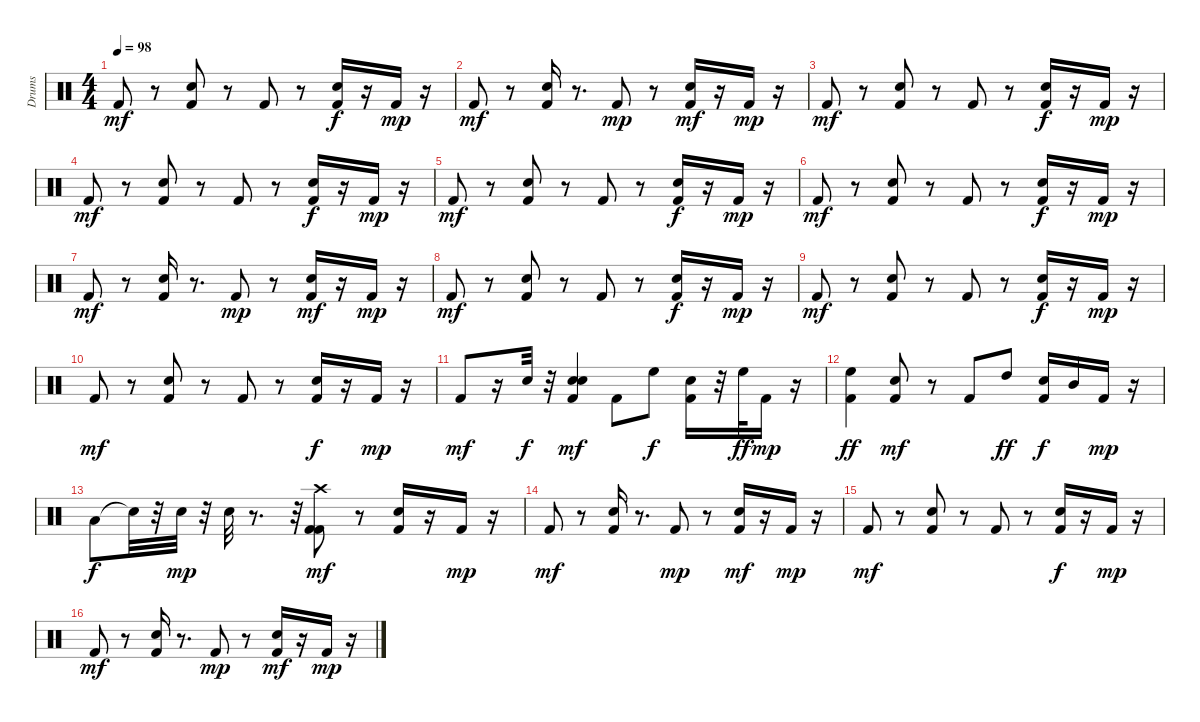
\track ("Drums" "Drums") {instrument percussion}
\staff {score}
\articulation defaults
\ts (4 4)
\tempo 98
\clef neutral
\ks c "Kick (hit) 2".8{dy mf}
r.8 ("Kick (hit) 2" "Snare (hit) 2").8 r.8 "Kick (hit) 2".8 r.8 ("Kick (hit) 2" "Snare (hit) 2").16{dy f} r.16 "Kick (hit) 2".16{dy mp} r.16 |
"Kick (hit) 2".8{dy mf} r.8 ("Kick (hit) 2" "Snare (hit) 2").16 r.8{d} "Kick (hit) 2".8{dy mp} r.8 ("Kick (hit) 2" "Snare (hit) 2").16{dy mf} r.16 "Kick (hit) 2".16{dy mp} r.16 |
"Kick (hit) 2".8{dy mf} r.8 ("Kick (hit) 2" "Snare (hit) 2").8 r.8 "Kick (hit) 2".8 r.8 ("Kick (hit) 2" "Snare (hit) 2").16{dy f} r.16 "Kick (hit) 2".16{dy mp} r.16 |
"Kick (hit) 2".8{dy mf} r.8 ("Kick (hit) 2" "Snare (hit) 2").8 r.8 "Kick (hit) 2".8 r.8 ("Kick (hit) 2" "Snare (hit) 2").16{dy f} r.16 "Kick (hit) 2".16{dy mp} r.16 |
"Kick (hit) 2".8{dy mf} r.8 ("Kick (hit) 2" "Snare (hit) 2").8 r.8 "Kick (hit) 2".8 r.8 ("Kick (hit) 2" "Snare (hit) 2").16{dy f} r.16 "Kick (hit) 2".16{dy mp} r.16 |
"Kick (hit) 2".8{dy mf} r.8 ("Kick (hit) 2" "Snare (hit) 2").8 r.8 "Kick (hit) 2".8 r.8 ("Kick (hit) 2" "Snare (hit) 2").16{dy f} r.16 "Kick (hit) 2".16{dy mp} r.16 |
"Kick (hit) 2".8{dy mf} r.8 ("Kick (hit) 2" "Snare (hit) 2").16 r.8{d} "Kick (hit) 2".8{dy mp} r.8 ("Kick (hit) 2" "Snare (hit) 2").16{dy mf} r.16 "Kick (hit) 2".16{dy mp} r.16 |
"Kick (hit) 2".8{dy mf} r.8 ("Kick (hit) 2" "Snare (hit) 2").8 r.8 "Kick (hit) 2".8 r.8 ("Kick (hit) 2" "Snare (hit) 2").16{dy f} r.16 "Kick (hit) 2".16{dy mp} r.16 |
"Kick (hit) 2".8{dy mf} r.8 ("Kick (hit) 2" "Snare (hit) 2").8 r.8 "Kick (hit) 2".8 r.8 ("Kick (hit) 2" "Snare (hit) 2").16{dy f} r.16 "Kick (hit) 2".16{dy mp} r.16 |
"Kick (hit) 2".8{dy mf} r.8 ("Kick (hit) 2" "Snare (hit) 2").8 r.8 "Kick (hit) 2".8 r.8 ("Kick (hit) 2" "Snare (hit) 2").16{dy f} r.16 "Kick (hit) 2".16{dy mp} r.16 |
"Kick (hit) 2".8{dy mf} r.16 "Snare (hit) 2".32{dy f} r.32 ("Kick (hit) 2" "Snare (hit) 2" "Snare (hit) 2").4{dy mf} "Kick (hit) 2".8 "High Floor Tom (hit)".8{dy f} ("Kick (hit) 2" "Snare (hit) 2").16 r.32 "High Floor Tom (hit)".32{dy ff} "Kick (hit) 2".16{dy mp} r.16 |
("Kick (hit) 2" "High Floor Tom (hit)").4{dy ff} ("Kick (hit) 2" "Snare (hit) 2").8{dy mf} r.8 "Kick (hit) 2".8 "High Tom (hit)".8{dy ff} ("Kick (hit) 2" "Snare (hit) 2").16{dy f} "Mid Tom (hit)".16 "Kick (hit) 2".16{dy mp} r.16 |
"Low Tom (hit)".8{dy f} "Snare (hit)"{t}.32 r.32 "Snare (hit) 2".32{dy mp} r.32 "Snare (hit) 2".32 r.8{d} r.32 ("Kick (hit) 2" "Crash high (hit)" "Kick (hit) 2").8{dy mf} r.8 ("Kick (hit) 2" "Snare (hit) 2").16 r.16 "Kick (hit) 2".16{dy mp} r.16 |
"Kick (hit) 2".8{dy mf} r.8 ("Kick (hit) 2" "Snare (hit) 2").16 r.8{d} "Kick (hit) 2".8{dy mp} r.8 ("Kick (hit) 2" "Snare (hit) 2").16{dy mf} r.16 "Kick (hit) 2".16{dy mp} r.16 |
"Kick (hit) 2".8{dy mf} r.8 ("Kick (hit) 2" "Snare (hit) 2").8 r.8 "Kick (hit) 2".8 r.8 ("Kick (hit) 2" "Snare (hit) 2").16{dy f} r.16 "Kick (hit) 2".16{dy mp} r.16 |
"Kick (hit) 2".8{dy mf} r.8 ("Kick (hit) 2" "Snare (hit) 2").16 r.8{d} "Kick (hit) 2".8{dy mp} r.8 ("Kick (hit) 2" "Snare (hit) 2").16{dy mf} r.16 "Kick (hit) 2".16{dy mp} r.16
